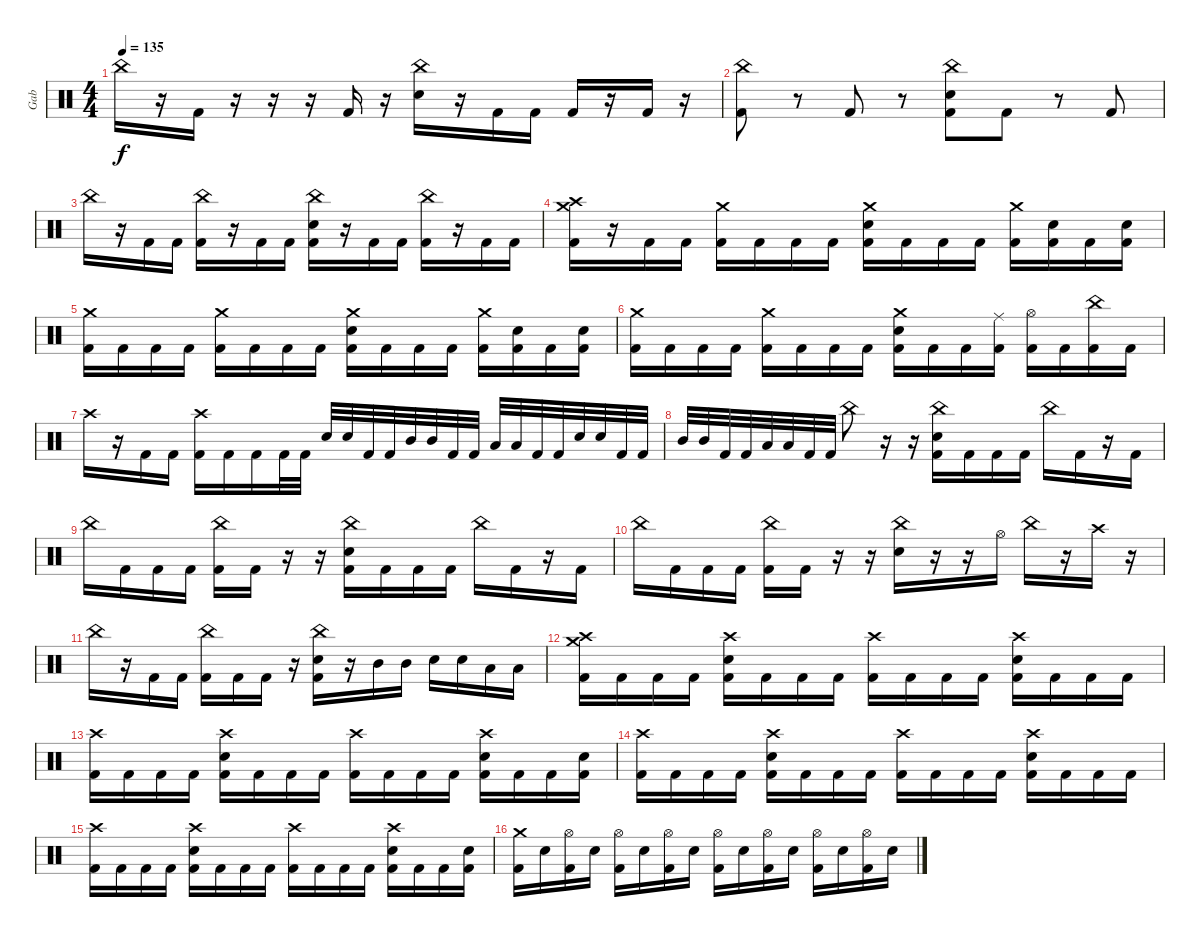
\track ("Gab" "Gab") {instrument percussion}
\staff {score}
\articulation defaults
\ts (4 4)
\tempo 135
\clef neutral
\ks c "China (hit)".16{dy f}
r.16 "Kick (hit) 2".16 r.16 r.16 r.16 "Kick (hit) 2".16 r.16 ("China (hit)" "Electric Snare (hit)").16 r.16 "Kick (hit) 2".16 "Kick (hit) 2".16 "Kick (hit) 2".16 r.16 "Kick (hit) 2".16 r.16 |
("China (hit)" "Kick (hit) 2").8 r.8 "Kick (hit) 2".8 r.8 ("China (hit)" "Electric Snare (hit)" "Kick (hit) 2").8 "Kick (hit) 2".8 r.8 "Kick (hit) 2".8 |
"China (hit)".16 r.16 "Kick (hit) 2".16 "Kick (hit) 2".16 ("China (hit)" "Kick (hit) 2").16 r.16 "Kick (hit) 2".16 "Kick (hit) 2".16 ("China (hit)" "Electric Snare (hit)" "Kick (hit) 2").16 r.16 "Kick (hit) 2".16 "Kick (hit) 2".16 ("China (hit)" "Kick (hit) 2").16 r.16 "Kick (hit) 2".16 "Kick (hit) 2".16 |
("Crash medium (hit)" "Crash high (hit)" "Kick (hit) 2").16 r.16 "Kick (hit) 2".16 "Kick (hit) 2".16 ("Crash medium (hit)" "Kick (hit) 2").16 "Kick (hit) 2".16 "Kick (hit) 2".16 "Kick (hit) 2".16 ("Crash medium (hit)" "Electric Snare (hit)" "Kick (hit) 2").16 "Kick (hit) 2".16 "Kick (hit) 2".16 "Kick (hit) 2".16 ("Crash medium (hit)" "Kick (hit) 2").16 ("Electric Snare (hit)" "Kick (hit) 2").16 "Kick (hit) 2".16 ("Electric Snare (hit)" "Kick (hit) 2").16 |
("Crash medium (hit)" "Kick (hit) 2").16 "Kick (hit) 2".16 "Kick (hit) 2".16 "Kick (hit) 2".16 ("Crash medium (hit)" "Kick (hit) 2").16 "Kick (hit) 2".16 "Kick (hit) 2".16 "Kick (hit) 2".16 ("Crash medium (hit)" "Electric Snare (hit)" "Kick (hit) 2").16 "Kick (hit) 2".16 "Kick (hit) 2".16 "Kick (hit) 2".16 ("Crash medium (hit)" "Kick (hit) 2").16 ("Electric Snare (hit)" "Kick (hit) 2").16 "Kick (hit) 2".16 ("Electric Snare (hit)" "Kick (hit) 2").16 |
("Crash medium (hit)" "Kick (hit) 2").16 "Kick (hit) 2".16 "Kick (hit) 2".16 "Kick (hit) 2".16 ("Crash medium (hit)" "Kick (hit) 2").16 "Kick (hit) 2".16 "Kick (hit) 2".16 "Kick (hit) 2".16 ("Crash medium (hit)" "Electric Snare (hit)" "Kick (hit) 2").16 "Kick (hit) 2".16 "Kick (hit) 2".16 ("Ride (middle)" "Kick (hit) 2").16 ("Hi-Hat (open)" "Kick (hit) 2").16 "Kick (hit) 2".16 ("China (hit)" "Kick (hit) 2").16 "Kick (hit) 2".16 |
"Crash high (hit)".16 r.16 "Kick (hit) 2".16 "Kick (hit) 2".16 ("Crash high (hit)" "Kick (hit) 2").16 "Kick (hit) 2".16 "Kick (hit) 2".16 "Kick (hit) 2".32 "Kick (hit) 2".32 "Electric Snare (hit)".32 "Electric Snare (hit)".32 "Kick (hit) 2".32 "Kick (hit) 2".32 "Mid Tom (hit)".32 "Mid Tom (hit)".32 "Kick (hit) 2".32 "Kick (hit) 2".32 "Low Tom (hit)".32 "Low Tom (hit)".32 "Kick (hit) 2".32 "Kick (hit) 2".32 "Electric Snare (hit)".32 "Electric Snare (hit)".32 "Kick (hit) 2".32 "Kick (hit) 2".32 |
"Mid Tom (hit)".32 "Mid Tom (hit)".32 "Kick (hit) 2".32 "Kick (hit) 2".32 "Low Tom (hit)".32 "Low Tom (hit)".32 "Kick (hit) 2".32 "Kick (hit) 2".32 "China (hit)".8 r.16 r.16 ("China (hit)" "Electric Snare (hit)" "Kick (hit) 2").16 "Kick (hit) 2".16 "Kick (hit) 2".16 "Kick (hit) 2".16 "China (hit)".16 "Kick (hit) 2".16 r.16 "Kick (hit) 2".16 |
"China (hit)".16 "Kick (hit) 2".16 "Kick (hit) 2".16 "Kick (hit) 2".16 ("China (hit)" "Kick (hit) 2").16 "Kick (hit) 2".16 r.16 r.16 ("China (hit)" "Electric Snare (hit)" "Kick (hit) 2").16 "Kick (hit) 2".16 "Kick (hit) 2".16 "Kick (hit) 2".16 "China (hit)".16 "Kick (hit) 2".16 r.16 "Kick (hit) 2".16 |
"China (hit)".16 "Kick (hit) 2".16 "Kick (hit) 2".16 "Kick (hit) 2".16 ("China (hit)" "Kick (hit) 2").16 "Kick (hit) 2".16 r.16 r.16 ("China (hit)" "Electric Snare (hit)").16 r.16 r.16 "Hi-Hat (open)".16 "China (hit)".16 r.16 "Crash high (hit)".16 r.16 |
"China (hit)".16 r.16 "Kick (hit) 2".16 "Kick (hit) 2".16 ("China (hit)" "Kick (hit) 2").16 "Kick (hit) 2".16 "Kick (hit) 2".16 r.16 ("China (hit)" "Electric Snare (hit)" "Kick (hit) 2").16 r.16 "Mid Tom (hit)".16 "Mid Tom (hit)".16 "Electric Snare (hit)".16 "Electric Snare (hit)".16 "Low Tom (hit)".16 "Low Tom (hit)".16 |
("Crash medium (hit)" "Crash high (hit)" "Kick (hit) 2").16 "Kick (hit) 2".16 "Kick (hit) 2".16 "Kick (hit) 2".16 ("Crash high (hit)" "Electric Snare (hit)" "Kick (hit) 2").16 "Kick (hit) 2".16 "Kick (hit) 2".16 "Kick (hit) 2".16 ("Crash high (hit)" "Kick (hit) 2").16 "Kick (hit) 2".16 "Kick (hit) 2".16 "Kick (hit) 2".16 ("Crash high (hit)" "Electric Snare (hit)" "Kick (hit) 2").16 "Kick (hit) 2".16 "Kick (hit) 2".16 "Kick (hit) 2".16 |
("Crash high (hit)" "Kick (hit) 2").16 "Kick (hit) 2".16 "Kick (hit) 2".16 "Kick (hit) 2".16 ("Crash high (hit)" "Electric Snare (hit)" "Kick (hit) 2").16 "Kick (hit) 2".16 "Kick (hit) 2".16 "Kick (hit) 2".16 ("Crash high (hit)" "Kick (hit) 2").16 "Kick (hit) 2".16 "Kick (hit) 2".16 "Kick (hit) 2".16 ("Crash high (hit)" "Electric Snare (hit)" "Kick (hit) 2").16 "Kick (hit) 2".16 "Kick (hit) 2".16 ("Electric Snare (hit)" "Kick (hit) 2").16 |
("Crash high (hit)" "Kick (hit) 2").16 "Kick (hit) 2".16 "Kick (hit) 2".16 "Kick (hit) 2".16 ("Crash high (hit)" "Electric Snare (hit)" "Kick (hit) 2").16 "Kick (hit) 2".16 "Kick (hit) 2".16 "Kick (hit) 2".16 ("Crash high (hit)" "Kick (hit) 2").16 "Kick (hit) 2".16 "Kick (hit) 2".16 "Kick (hit) 2".16 ("Crash high (hit)" "Electric Snare (hit)" "Kick (hit) 2").16 "Kick (hit) 2".16 "Kick (hit) 2".16 "Kick (hit) 2".16 |
("Crash high (hit)" "Kick (hit) 2").16 "Kick (hit) 2".16 "Kick (hit) 2".16 "Kick (hit) 2".16 ("Crash high (hit)" "Electric Snare (hit)" "Kick (hit) 2").16 "Kick (hit) 2".16 "Kick (hit) 2".16 "Kick (hit) 2".16 ("Crash high (hit)" "Kick (hit) 2").16 "Kick (hit) 2".16 "Kick (hit) 2".16 "Kick (hit) 2".16 ("Crash high (hit)" "Electric Snare (hit)" "Kick (hit) 2").16 "Kick (hit) 2".16 "Kick (hit) 2".16 ("Electric Snare (hit)" "Kick (hit) 2").16 |
("Crash medium (hit)" "Kick (hit) 2").16 "Electric Snare (hit)".16 ("Hi-Hat (open)" "Kick (hit) 2").16 "Electric Snare (hit)".16 ("Hi-Hat (open)" "Kick (hit) 2").16 "Electric Snare (hit)".16 ("Hi-Hat (open)" "Kick (hit) 2").16 "Electric Snare (hit)".16 ("Hi-Hat (open)" "Kick (hit) 2").16 "Electric Snare (hit)".16 ("Hi-Hat (open)" "Kick (hit) 2").16 "Electric Snare (hit)".16 ("Hi-Hat (open)" "Kick (hit) 2").16 "Electric Snare (hit)".16 ("Hi-Hat (open)" "Kick (hit) 2").16 "Electric Snare (hit)".16
